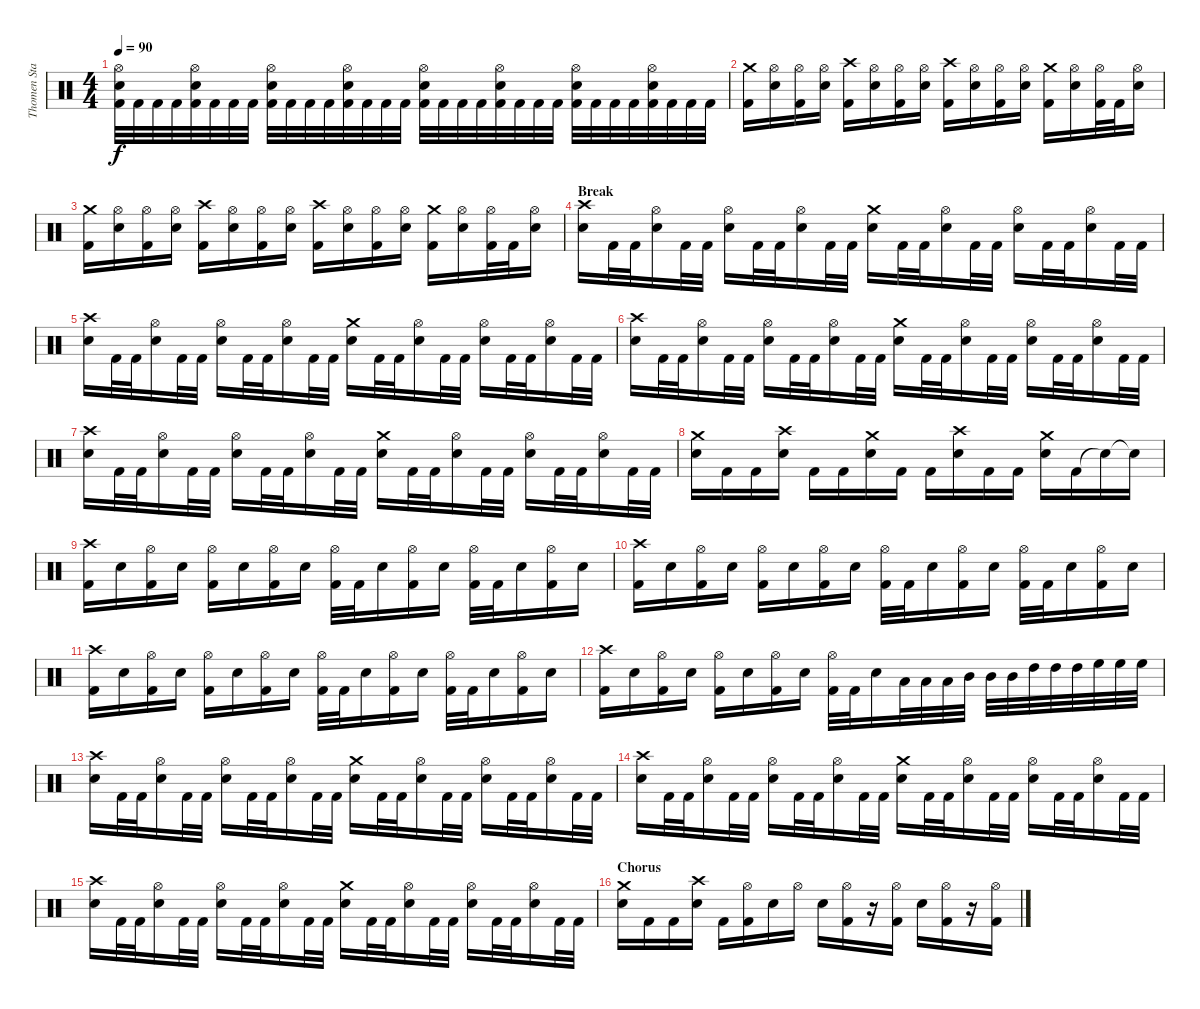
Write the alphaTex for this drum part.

\track ("Thomen Stauch" "Thomen Sta") {instrument percussion}
\staff {score}
\articulation defaults
\ts (4 4)
\tempo 90
\clef neutral
\ks c
("Kick (hit) 2" "Snare (hit) 2" "Hi-Hat (open)").32{dy f} "Kick (hit) 2".32 "Kick (hit) 2".32 "Kick (hit) 2".32 ("Kick (hit) 2" "Snare (hit) 2" "Hi-Hat (open)").32 "Kick (hit) 2".32 "Kick (hit) 2".32 "Kick (hit) 2".32 ("Kick (hit) 2" "Snare (hit) 2" "Hi-Hat (open)").32 "Kick (hit) 2".32 "Kick (hit) 2".32 "Kick (hit) 2".32 ("Kick (hit) 2" "Snare (hit) 2" "Hi-Hat (open)").32 "Kick (hit) 2".32 "Kick (hit) 2".32 "Kick (hit) 2".32 ("Kick (hit) 2" "Snare (hit) 2" "Hi-Hat (open)").32 "Kick (hit) 2".32 "Kick (hit) 2".32 "Kick (hit) 2".32 ("Kick (hit) 2" "Snare (hit) 2" "Hi-Hat (open)").32 "Kick (hit) 2".32 "Kick (hit) 2".32 "Kick (hit) 2".32 ("Kick (hit) 2" "Snare (hit) 2" "Hi-Hat (open)").32 "Kick (hit) 2".32 "Kick (hit) 2".32 "Kick (hit) 2".32 ("Kick (hit) 2" "Snare (hit) 2" "Hi-Hat (open)").32 "Kick (hit) 2".32 "Kick (hit) 2".32 "Kick (hit) 2".32 |
("Kick (hit) 2" "Crash medium (hit)").16 ("Snare (hit) 2" "Hi-Hat (open)").16 ("Kick (hit) 2" "Hi-Hat (open)").16 ("Snare (hit) 2" "Hi-Hat (open)").16 ("Kick (hit) 2" "Crash high (hit)").16 ("Snare (hit) 2" "Hi-Hat (open)").16 ("Kick (hit) 2" "Hi-Hat (open)").16 ("Snare (hit) 2" "Hi-Hat (open)").16 ("Kick (hit) 2" "Crash high (hit)").16 ("Snare (hit) 2" "Hi-Hat (open)").16 ("Kick (hit) 2" "Hi-Hat (open)").16 ("Snare (hit) 2" "Hi-Hat (open)").16 ("Kick (hit) 2" "Crash medium (hit)").16 ("Snare (hit) 2" "Hi-Hat (open)").16 ("Kick (hit) 2" "Hi-Hat (open)").32 "Kick (hit) 2".32 ("Snare (hit) 2" "Hi-Hat (open)").16 |
("Kick (hit) 2" "Crash medium (hit)").16 ("Snare (hit) 2" "Hi-Hat (open)").16 ("Kick (hit) 2" "Hi-Hat (open)").16 ("Snare (hit) 2" "Hi-Hat (open)").16 ("Kick (hit) 2" "Crash high (hit)").16 ("Snare (hit) 2" "Hi-Hat (open)").16 ("Kick (hit) 2" "Hi-Hat (open)").16 ("Snare (hit) 2" "Hi-Hat (open)").16 ("Kick (hit) 2" "Crash high (hit)").16 ("Snare (hit) 2" "Hi-Hat (open)").16 ("Kick (hit) 2" "Hi-Hat (open)").16 ("Snare (hit) 2" "Hi-Hat (open)").16 ("Kick (hit) 2" "Crash medium (hit)").16 ("Snare (hit) 2" "Hi-Hat (open)").16 ("Kick (hit) 2" "Hi-Hat (open)").32 "Kick (hit) 2".32 ("Snare (hit) 2" "Hi-Hat (open)").16 |
\section ("" "Break")
("Snare (hit) 2" "Crash high (hit)").16 "Kick (hit) 2".32 "Kick (hit) 2".32 ("Snare (hit) 2" "Hi-Hat (open)").16 "Kick (hit) 2".32 "Kick (hit) 2".32 ("Snare (hit) 2" "Hi-Hat (open)").16 "Kick (hit) 2".32 "Kick (hit) 2".32 ("Snare (hit) 2" "Hi-Hat (open)").16 "Kick (hit) 2".32 "Kick (hit) 2".32 ("Snare (hit) 2" "Crash medium (hit)").16 "Kick (hit) 2".32 "Kick (hit) 2".32 ("Snare (hit) 2" "Hi-Hat (open)").16 "Kick (hit) 2".32 "Kick (hit) 2".32 ("Snare (hit) 2" "Hi-Hat (open)").16 "Kick (hit) 2".32 "Kick (hit) 2".32 ("Snare (hit) 2" "Hi-Hat (open)").16 "Kick (hit) 2".32 "Kick (hit) 2".32 |
("Snare (hit) 2" "Crash high (hit)").16 "Kick (hit) 2".32 "Kick (hit) 2".32 ("Snare (hit) 2" "Hi-Hat (open)").16 "Kick (hit) 2".32 "Kick (hit) 2".32 ("Snare (hit) 2" "Hi-Hat (open)").16 "Kick (hit) 2".32 "Kick (hit) 2".32 ("Snare (hit) 2" "Hi-Hat (open)").16 "Kick (hit) 2".32 "Kick (hit) 2".32 ("Snare (hit) 2" "Crash medium (hit)").16 "Kick (hit) 2".32 "Kick (hit) 2".32 ("Snare (hit) 2" "Hi-Hat (open)").16 "Kick (hit) 2".32 "Kick (hit) 2".32 ("Snare (hit) 2" "Hi-Hat (open)").16 "Kick (hit) 2".32 "Kick (hit) 2".32 ("Snare (hit) 2" "Hi-Hat (open)").16 "Kick (hit) 2".32 "Kick (hit) 2".32 |
("Snare (hit) 2" "Crash high (hit)").16 "Kick (hit) 2".32 "Kick (hit) 2".32 ("Snare (hit) 2" "Hi-Hat (open)").16 "Kick (hit) 2".32 "Kick (hit) 2".32 ("Snare (hit) 2" "Hi-Hat (open)").16 "Kick (hit) 2".32 "Kick (hit) 2".32 ("Snare (hit) 2" "Hi-Hat (open)").16 "Kick (hit) 2".32 "Kick (hit) 2".32 ("Snare (hit) 2" "Crash medium (hit)").16 "Kick (hit) 2".32 "Kick (hit) 2".32 ("Snare (hit) 2" "Hi-Hat (open)").16 "Kick (hit) 2".32 "Kick (hit) 2".32 ("Snare (hit) 2" "Hi-Hat (open)").16 "Kick (hit) 2".32 "Kick (hit) 2".32 ("Snare (hit) 2" "Hi-Hat (open)").16 "Kick (hit) 2".32 "Kick (hit) 2".32 |
("Snare (hit) 2" "Crash high (hit)").16 "Kick (hit) 2".32 "Kick (hit) 2".32 ("Snare (hit) 2" "Hi-Hat (open)").16 "Kick (hit) 2".32 "Kick (hit) 2".32 ("Snare (hit) 2" "Hi-Hat (open)").16 "Kick (hit) 2".32 "Kick (hit) 2".32 ("Snare (hit) 2" "Hi-Hat (open)").16 "Kick (hit) 2".32 "Kick (hit) 2".32 ("Snare (hit) 2" "Crash medium (hit)").16 "Kick (hit) 2".32 "Kick (hit) 2".32 ("Snare (hit) 2" "Hi-Hat (open)").16 "Kick (hit) 2".32 "Kick (hit) 2".32 ("Snare (hit) 2" "Hi-Hat (open)").16 "Kick (hit) 2".32 "Kick (hit) 2".32 ("Snare (hit) 2" "Hi-Hat (open)").16 "Kick (hit) 2".32 "Kick (hit) 2".32 |
("Snare (hit) 2" "Crash medium (hit)").16 "Kick (hit) 2".16 "Kick (hit) 2".16 ("Snare (hit) 2" "Crash high (hit)").16 "Kick (hit) 2".16 "Kick (hit) 2".16 ("Snare (hit) 2" "Crash medium (hit)").16 "Kick (hit) 2".16 "Kick (hit) 2".16 ("Snare (hit) 2" "Crash high (hit)").16 "Kick (hit) 2".16 "Kick (hit) 2".16 ("Snare (hit) 2" "Crash medium (hit)").16 "Kick (hit) 2".16 "Snare (hit)"{t}.16 "Snare (hit)"{t}.16 |
("Kick (hit) 2" "Crash high (hit)").16 "Snare (hit) 2".16 ("Kick (hit) 2" "Hi-Hat (open)").16 "Snare (hit) 2".16 ("Kick (hit) 2" "Hi-Hat (open)").16 "Snare (hit) 2".16 ("Kick (hit) 2" "Hi-Hat (open)").16 "Snare (hit) 2".16 ("Kick (hit) 2" "Hi-Hat (open)").32 "Kick (hit) 2".32 "Snare (hit) 2".16 ("Kick (hit) 2" "Hi-Hat (open)").16 "Snare (hit) 2".16 ("Kick (hit) 2" "Hi-Hat (open)").32 "Kick (hit) 2".32 "Snare (hit) 2".16 ("Kick (hit) 2" "Hi-Hat (open)").16 "Snare (hit) 2".16 |
("Kick (hit) 2" "Crash high (hit)").16 "Snare (hit) 2".16 ("Kick (hit) 2" "Hi-Hat (open)").16 "Snare (hit) 2".16 ("Kick (hit) 2" "Hi-Hat (open)").16 "Snare (hit) 2".16 ("Kick (hit) 2" "Hi-Hat (open)").16 "Snare (hit) 2".16 ("Kick (hit) 2" "Hi-Hat (open)").32 "Kick (hit) 2".32 "Snare (hit) 2".16 ("Kick (hit) 2" "Hi-Hat (open)").16 "Snare (hit) 2".16 ("Kick (hit) 2" "Hi-Hat (open)").32 "Kick (hit) 2".32 "Snare (hit) 2".16 ("Kick (hit) 2" "Hi-Hat (open)").16 "Snare (hit) 2".16 |
("Kick (hit) 2" "Crash high (hit)").16 "Snare (hit) 2".16 ("Kick (hit) 2" "Hi-Hat (open)").16 "Snare (hit) 2".16 ("Kick (hit) 2" "Hi-Hat (open)").16 "Snare (hit) 2".16 ("Kick (hit) 2" "Hi-Hat (open)").16 "Snare (hit) 2".16 ("Kick (hit) 2" "Hi-Hat (open)").32 "Kick (hit) 2".32 "Snare (hit) 2".16 ("Kick (hit) 2" "Hi-Hat (open)").16 "Snare (hit) 2".16 ("Kick (hit) 2" "Hi-Hat (open)").32 "Kick (hit) 2".32 "Snare (hit) 2".16 ("Kick (hit) 2" "Hi-Hat (open)").16 "Snare (hit) 2".16 |
("Kick (hit) 2" "Crash high (hit)").16 "Snare (hit) 2".16 ("Kick (hit) 2" "Hi-Hat (open)").16 "Snare (hit) 2".16 ("Kick (hit) 2" "Hi-Hat (open)").16 "Snare (hit) 2".16 ("Kick (hit) 2" "Hi-Hat (open)").16 "Snare (hit) 2".16 ("Kick (hit) 2" "Hi-Hat (open)").32 "Kick (hit) 2".32 "Snare (hit) 2".16 "Low Tom (hit)".32 "Low Tom (hit)".32 "Low Tom (hit)".32 "Mid Tom (hit)".32 "Mid Tom (hit)".32 "Mid Tom (hit)".32 "High Tom (hit)".32 "High Tom (hit)".32 "High Tom (hit)".32 "High Floor Tom (hit)".32 "High Floor Tom (hit)".32 "High Floor Tom (hit)".32 |
("Snare (hit) 2" "Crash high (hit)").16 "Kick (hit) 2".32 "Kick (hit) 2".32 ("Snare (hit) 2" "Hi-Hat (open)").16 "Kick (hit) 2".32 "Kick (hit) 2".32 ("Snare (hit) 2" "Hi-Hat (open)").16 "Kick (hit) 2".32 "Kick (hit) 2".32 ("Snare (hit) 2" "Hi-Hat (open)").16 "Kick (hit) 2".32 "Kick (hit) 2".32 ("Snare (hit) 2" "Crash medium (hit)").16 "Kick (hit) 2".32 "Kick (hit) 2".32 ("Snare (hit) 2" "Hi-Hat (open)").16 "Kick (hit) 2".32 "Kick (hit) 2".32 ("Snare (hit) 2" "Hi-Hat (open)").16 "Kick (hit) 2".32 "Kick (hit) 2".32 ("Snare (hit) 2" "Hi-Hat (open)").16 "Kick (hit) 2".32 "Kick (hit) 2".32 |
("Snare (hit) 2" "Crash high (hit)").16 "Kick (hit) 2".32 "Kick (hit) 2".32 ("Snare (hit) 2" "Hi-Hat (open)").16 "Kick (hit) 2".32 "Kick (hit) 2".32 ("Snare (hit) 2" "Hi-Hat (open)").16 "Kick (hit) 2".32 "Kick (hit) 2".32 ("Snare (hit) 2" "Hi-Hat (open)").16 "Kick (hit) 2".32 "Kick (hit) 2".32 ("Snare (hit) 2" "Crash medium (hit)").16 "Kick (hit) 2".32 "Kick (hit) 2".32 ("Snare (hit) 2" "Hi-Hat (open)").16 "Kick (hit) 2".32 "Kick (hit) 2".32 ("Snare (hit) 2" "Hi-Hat (open)").16 "Kick (hit) 2".32 "Kick (hit) 2".32 ("Snare (hit) 2" "Hi-Hat (open)").16 "Kick (hit) 2".32 "Kick (hit) 2".32 |
("Snare (hit) 2" "Crash high (hit)").16 "Kick (hit) 2".32 "Kick (hit) 2".32 ("Snare (hit) 2" "Hi-Hat (open)").16 "Kick (hit) 2".32 "Kick (hit) 2".32 ("Snare (hit) 2" "Hi-Hat (open)").16 "Kick (hit) 2".32 "Kick (hit) 2".32 ("Snare (hit) 2" "Hi-Hat (open)").16 "Kick (hit) 2".32 "Kick (hit) 2".32 ("Snare (hit) 2" "Crash medium (hit)").16 "Kick (hit) 2".32 "Kick (hit) 2".32 ("Snare (hit) 2" "Hi-Hat (open)").16 "Kick (hit) 2".32 "Kick (hit) 2".32 ("Snare (hit) 2" "Hi-Hat (open)").16 "Kick (hit) 2".32 "Kick (hit) 2".32 ("Snare (hit) 2" "Hi-Hat (open)").16 "Kick (hit) 2".32 "Kick (hit) 2".32 |
\section ("" "Chorus")
("Snare (hit) 2" "Crash medium (hit)").16 "Kick (hit) 2".16 "Kick (hit) 2".16 ("Snare (hit) 2" "Crash high (hit)").16 "Kick (hit) 2".16 ("Kick (hit) 2" "Hi-Hat (open)").16 "Snare (hit) 2".16 "Hi-Hat (open)".16 "Snare (hit) 2".16 ("Kick (hit) 2" "Hi-Hat (open)").16 r.16 ("Kick (hit) 2" "Hi-Hat (open)").16 "Snare (hit) 2".16 ("Kick (hit) 2" "Hi-Hat (open)").16 r.16 ("Kick (hit) 2" "Hi-Hat (open)").16
